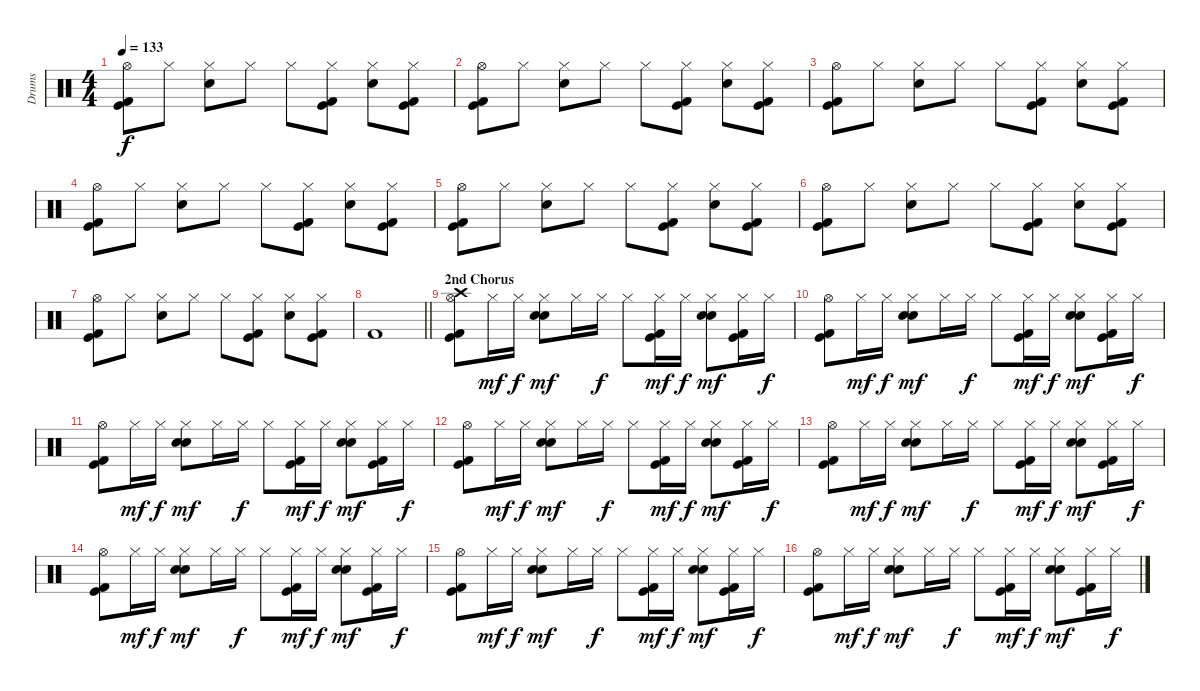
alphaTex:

\track ("Drums" "Drums") {instrument percussion}
\staff {score}
\articulation defaults
\ts (4 4)
\tempo 133
\clef neutral
\ks c
("Hi-Hat (open)" "Kick (hit)" "Kick (hit) 2").8{dy f} "Hi-Hat (closed)".8 ("Hi-Hat (closed)" "Snare (hit) 2").8 "Hi-Hat (closed)".8 "Hi-Hat (closed)".8 ("Hi-Hat (closed)" "Kick (hit)" "Kick (hit) 2").8 ("Hi-Hat (closed)" "Snare (hit) 2").8 ("Hi-Hat (closed)" "Kick (hit)" "Kick (hit) 2").8 |
("Hi-Hat (open)" "Kick (hit)" "Kick (hit) 2").8 "Hi-Hat (closed)".8 ("Hi-Hat (closed)" "Snare (hit) 2").8 "Hi-Hat (closed)".8 "Hi-Hat (closed)".8 ("Hi-Hat (closed)" "Kick (hit)" "Kick (hit) 2").8 ("Hi-Hat (closed)" "Snare (hit) 2").8 ("Hi-Hat (closed)" "Kick (hit)" "Kick (hit) 2").8 |
("Hi-Hat (open)" "Kick (hit)" "Kick (hit) 2").8 "Hi-Hat (closed)".8 ("Hi-Hat (closed)" "Snare (hit) 2").8 "Hi-Hat (closed)".8 "Hi-Hat (closed)".8 ("Hi-Hat (closed)" "Kick (hit)" "Kick (hit) 2").8 ("Hi-Hat (closed)" "Snare (hit) 2").8 ("Hi-Hat (closed)" "Kick (hit)" "Kick (hit) 2").8 |
("Hi-Hat (open)" "Kick (hit)" "Kick (hit) 2").8 "Hi-Hat (closed)".8 ("Hi-Hat (closed)" "Snare (hit) 2").8 "Hi-Hat (closed)".8 "Hi-Hat (closed)".8 ("Hi-Hat (closed)" "Kick (hit)" "Kick (hit) 2").8 ("Hi-Hat (closed)" "Snare (hit) 2").8 ("Hi-Hat (closed)" "Kick (hit)" "Kick (hit) 2").8 |
("Hi-Hat (open)" "Kick (hit)" "Kick (hit) 2").8 "Hi-Hat (closed)".8 ("Hi-Hat (closed)" "Snare (hit) 2").8 "Hi-Hat (closed)".8 "Hi-Hat (closed)".8 ("Hi-Hat (closed)" "Kick (hit)" "Kick (hit) 2").8 ("Hi-Hat (closed)" "Snare (hit) 2").8 ("Hi-Hat (closed)" "Kick (hit)" "Kick (hit) 2").8 |
("Hi-Hat (open)" "Kick (hit)" "Kick (hit) 2").8 "Hi-Hat (closed)".8 ("Hi-Hat (closed)" "Snare (hit) 2").8 "Hi-Hat (closed)".8 "Hi-Hat (closed)".8 ("Hi-Hat (closed)" "Kick (hit)" "Kick (hit) 2").8 ("Hi-Hat (closed)" "Snare (hit) 2").8 ("Hi-Hat (closed)" "Kick (hit)" "Kick (hit) 2").8 |
("Hi-Hat (open)" "Kick (hit)" "Kick (hit) 2").8 "Hi-Hat (closed)".8 ("Hi-Hat (closed)" "Snare (hit) 2").8 "Hi-Hat (closed)".8 "Hi-Hat (closed)".8 ("Hi-Hat (closed)" "Kick (hit)" "Kick (hit) 2").8 ("Hi-Hat (closed)" "Snare (hit) 2").8 ("Hi-Hat (closed)" "Kick (hit)" "Kick (hit) 2").8 |
\barLineRight lightlight "Kick (hit) 2".1
|
\section ("" "2nd Chorus")
("Crash high (hit)" "Hi-Hat (open)" "Kick (hit)" "Kick (hit) 2").8 "Hi-Hat (closed)".16{dy mf} "Hi-Hat (closed)".16{dy f} ("Hi-Hat (closed)" "Snare (hit) 2" "Hand Clap (hit)").8{dy mf} "Hi-Hat (closed)".16 "Hi-Hat (closed)".16{dy f} "Hi-Hat (closed)".8 ("Hi-Hat (closed)" "Kick (hit)" "Kick (hit) 2").16{dy mf} "Hi-Hat (closed)".16{dy f} ("Hi-Hat (closed)" "Snare (hit) 2" "Hand Clap (hit)").8{dy mf} ("Hi-Hat (closed)" "Kick (hit)" "Kick (hit) 2").16 "Hi-Hat (closed)".16{dy f} |
("Hi-Hat (open)" "Kick (hit)" "Kick (hit) 2").8 "Hi-Hat (closed)".16{dy mf} "Hi-Hat (closed)".16{dy f} ("Hi-Hat (closed)" "Snare (hit) 2" "Hand Clap (hit)").8{dy mf} "Hi-Hat (closed)".16 "Hi-Hat (closed)".16{dy f} "Hi-Hat (closed)".8 ("Hi-Hat (closed)" "Kick (hit)" "Kick (hit) 2").16{dy mf} "Hi-Hat (closed)".16{dy f} ("Hi-Hat (closed)" "Snare (hit) 2" "Hand Clap (hit)").8{dy mf} ("Hi-Hat (closed)" "Kick (hit)" "Kick (hit) 2").16 "Hi-Hat (closed)".16{dy f} |
("Hi-Hat (open)" "Kick (hit)" "Kick (hit) 2").8 "Hi-Hat (closed)".16{dy mf} "Hi-Hat (closed)".16{dy f} ("Hi-Hat (closed)" "Snare (hit) 2" "Hand Clap (hit)").8{dy mf} "Hi-Hat (closed)".16 "Hi-Hat (closed)".16{dy f} "Hi-Hat (closed)".8 ("Hi-Hat (closed)" "Kick (hit)" "Kick (hit) 2").16{dy mf} "Hi-Hat (closed)".16{dy f} ("Hi-Hat (closed)" "Snare (hit) 2" "Hand Clap (hit)").8{dy mf} ("Hi-Hat (closed)" "Kick (hit)" "Kick (hit) 2").16 "Hi-Hat (closed)".16{dy f} |
("Hi-Hat (open)" "Kick (hit)" "Kick (hit) 2").8 "Hi-Hat (closed)".16{dy mf} "Hi-Hat (closed)".16{dy f} ("Hi-Hat (closed)" "Snare (hit) 2" "Hand Clap (hit)").8{dy mf} "Hi-Hat (closed)".16 "Hi-Hat (closed)".16{dy f} "Hi-Hat (closed)".8 ("Hi-Hat (closed)" "Kick (hit)" "Kick (hit) 2").16{dy mf} "Hi-Hat (closed)".16{dy f} ("Hi-Hat (closed)" "Snare (hit) 2" "Hand Clap (hit)").8{dy mf} ("Hi-Hat (closed)" "Kick (hit)" "Kick (hit) 2").16 "Hi-Hat (closed)".16{dy f} |
("Hi-Hat (open)" "Kick (hit)" "Kick (hit) 2").8 "Hi-Hat (closed)".16{dy mf} "Hi-Hat (closed)".16{dy f} ("Hi-Hat (closed)" "Snare (hit) 2" "Hand Clap (hit)").8{dy mf} "Hi-Hat (closed)".16 "Hi-Hat (closed)".16{dy f} "Hi-Hat (closed)".8 ("Hi-Hat (closed)" "Kick (hit)" "Kick (hit) 2").16{dy mf} "Hi-Hat (closed)".16{dy f} ("Hi-Hat (closed)" "Snare (hit) 2" "Hand Clap (hit)").8{dy mf} ("Hi-Hat (closed)" "Kick (hit)" "Kick (hit) 2").16 "Hi-Hat (closed)".16{dy f} |
("Hi-Hat (open)" "Kick (hit)" "Kick (hit) 2").8 "Hi-Hat (closed)".16{dy mf} "Hi-Hat (closed)".16{dy f} ("Hi-Hat (closed)" "Snare (hit) 2" "Hand Clap (hit)").8{dy mf} "Hi-Hat (closed)".16 "Hi-Hat (closed)".16{dy f} "Hi-Hat (closed)".8 ("Hi-Hat (closed)" "Kick (hit)" "Kick (hit) 2").16{dy mf} "Hi-Hat (closed)".16{dy f} ("Hi-Hat (closed)" "Snare (hit) 2" "Hand Clap (hit)").8{dy mf} ("Hi-Hat (closed)" "Kick (hit)" "Kick (hit) 2").16 "Hi-Hat (closed)".16{dy f} |
("Hi-Hat (open)" "Kick (hit)" "Kick (hit) 2").8 "Hi-Hat (closed)".16{dy mf} "Hi-Hat (closed)".16{dy f} ("Hi-Hat (closed)" "Snare (hit) 2" "Hand Clap (hit)").8{dy mf} "Hi-Hat (closed)".16 "Hi-Hat (closed)".16{dy f} "Hi-Hat (closed)".8 ("Hi-Hat (closed)" "Kick (hit)" "Kick (hit) 2").16{dy mf} "Hi-Hat (closed)".16{dy f} ("Hi-Hat (closed)" "Snare (hit) 2" "Hand Clap (hit)").8{dy mf} ("Hi-Hat (closed)" "Kick (hit)" "Kick (hit) 2").16 "Hi-Hat (closed)".16{dy f} |
("Hi-Hat (open)" "Kick (hit)" "Kick (hit) 2").8 "Hi-Hat (closed)".16{dy mf} "Hi-Hat (closed)".16{dy f} ("Hi-Hat (closed)" "Snare (hit) 2" "Hand Clap (hit)").8{dy mf} "Hi-Hat (closed)".16 "Hi-Hat (closed)".16{dy f} "Hi-Hat (closed)".8 ("Hi-Hat (closed)" "Kick (hit)" "Kick (hit) 2").16{dy mf} "Hi-Hat (closed)".16{dy f} ("Hi-Hat (closed)" "Snare (hit) 2" "Hand Clap (hit)").8{dy mf} ("Hi-Hat (closed)" "Kick (hit)" "Kick (hit) 2").16 "Hi-Hat (closed)".16{dy f}
